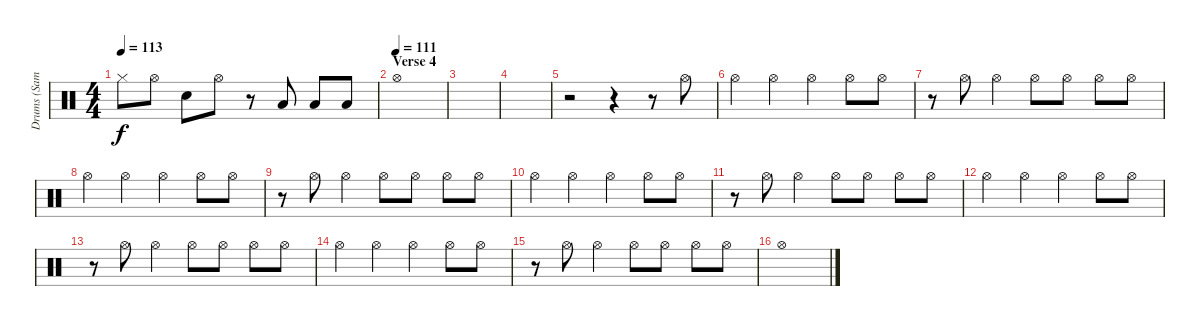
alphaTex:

\track ("Drums (Sam)" "Drums (Sam") {instrument percussion}
\staff {score}
\articulation defaults
\ts (4 4)
\tempo 113
\clef neutral
\ks c "Hi-Hat (closed)".8{dy f} "Hi-Hat (open)".8 "Snare (hit) 2".8 "Hi-Hat (open)".8
r.8 "Low Floor Tom (hit)".8 "Low Floor Tom (hit)".8 "Low Tom (hit)".8 |
\section ("" "Verse 4")
\tempo (111)
"Hi-Hat (open)".1 |
|
|
r.2 r.4 r.8 "Hi-Hat (open)".8{volume 13} |
"Hi-Hat (open)".4 "Hi-Hat (open)".4 "Hi-Hat (open)".4 "Hi-Hat (open)".8 "Hi-Hat (open)".8 |
r.8 "Hi-Hat (open)".8 "Hi-Hat (open)".4 "Hi-Hat (open)".8 "Hi-Hat (open)".8 "Hi-Hat (open)".8 "Hi-Hat (open)".8 |
"Hi-Hat (open)".4 "Hi-Hat (open)".4 "Hi-Hat (open)".4 "Hi-Hat (open)".8 "Hi-Hat (open)".8 |
r.8 "Hi-Hat (open)".8 "Hi-Hat (open)".4 "Hi-Hat (open)".8 "Hi-Hat (open)".8 "Hi-Hat (open)".8 "Hi-Hat (open)".8 |
"Hi-Hat (open)".4 "Hi-Hat (open)".4 "Hi-Hat (open)".4 "Hi-Hat (open)".8 "Hi-Hat (open)".8 |
r.8 "Hi-Hat (open)".8 "Hi-Hat (open)".4 "Hi-Hat (open)".8 "Hi-Hat (open)".8 "Hi-Hat (open)".8 "Hi-Hat (open)".8 |
"Hi-Hat (open)".4 "Hi-Hat (open)".4 "Hi-Hat (open)".4 "Hi-Hat (open)".8 "Hi-Hat (open)".8 |
r.8 "Hi-Hat (open)".8 "Hi-Hat (open)".4 "Hi-Hat (open)".8 "Hi-Hat (open)".8 "Hi-Hat (open)".8 "Hi-Hat (open)".8 |
"Hi-Hat (open)".4 "Hi-Hat (open)".4 "Hi-Hat (open)".4 "Hi-Hat (open)".8 "Hi-Hat (open)".8 |
r.8 "Hi-Hat (open)".8 "Hi-Hat (open)".4 "Hi-Hat (open)".8 "Hi-Hat (open)".8 "Hi-Hat (open)".8 "Hi-Hat (open)".8 |
"Hi-Hat (open)".1
